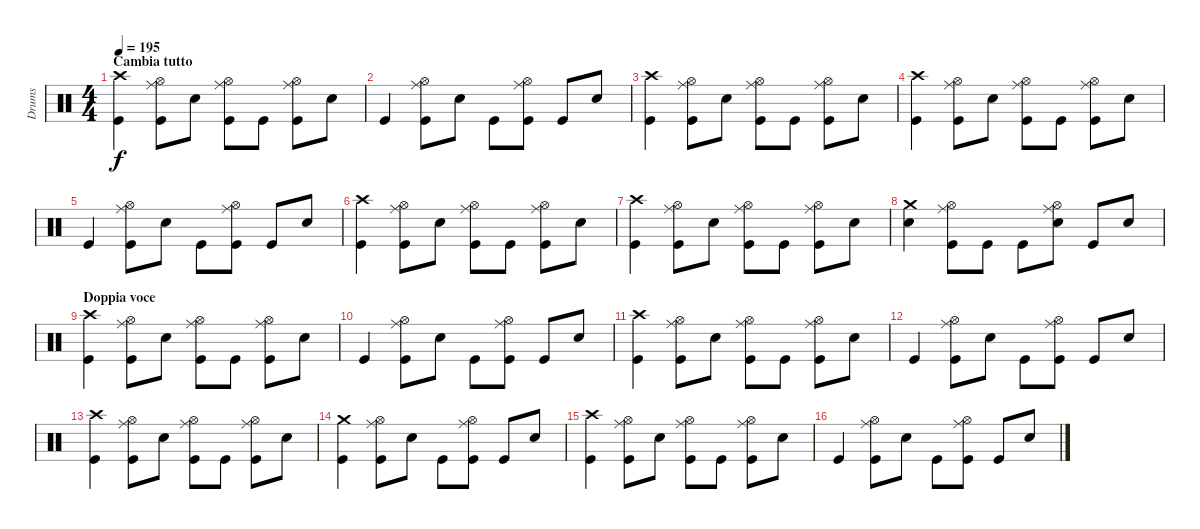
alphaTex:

\track ("Drums" "Drums") {instrument percussion}
\staff {score}
\articulation defaults
\ts (4 4)
\section ("" "Cambia tutto")
\tempo 195
\clef neutral
\ks c
("Crash high (hit)" "Kick (hit)").4{dy f} ("Hi-Hat (open)" "Ride (middle)" "Kick (hit)").8 "Electric Snare (hit)".8 ("Hi-Hat (open)" "Ride (middle)" "Kick (hit)").8 "Kick (hit)".8 ("Hi-Hat (open)" "Ride (middle)" "Kick (hit)").8 "Electric Snare (hit)".8 |
"Kick (hit)".4 ("Hi-Hat (open)" "Ride (middle)" "Kick (hit)").8 "Electric Snare (hit)".8 "Kick (hit)".8 ("Hi-Hat (open)" "Ride (middle)" "Kick (hit)").8 "Kick (hit)".8 "Electric Snare (hit)".8 |
("Crash high (hit)" "Kick (hit)").4 ("Ride (middle)" "Hi-Hat (open)" "Kick (hit)").8 "Electric Snare (hit)".8 ("Ride (middle)" "Hi-Hat (open)" "Kick (hit)").8 "Kick (hit)".8 ("Ride (middle)" "Hi-Hat (open)" "Kick (hit)").8 "Electric Snare (hit)".8 |
("Crash high (hit)" "Kick (hit)").4 ("Hi-Hat (open)" "Ride (middle)" "Kick (hit)").8 "Electric Snare (hit)".8 ("Hi-Hat (open)" "Ride (middle)" "Kick (hit)").8 "Kick (hit)".8 ("Hi-Hat (open)" "Ride (middle)" "Kick (hit)").8 "Electric Snare (hit)".8 |
"Kick (hit)".4 ("Hi-Hat (open)" "Ride (middle)" "Kick (hit)").8 "Electric Snare (hit)".8 "Kick (hit)".8 ("Hi-Hat (open)" "Ride (middle)" "Kick (hit)").8 "Kick (hit)".8 "Electric Snare (hit)".8 |
("Crash high (hit)" "Kick (hit)").4 ("Ride (middle)" "Hi-Hat (open)" "Kick (hit)").8 "Electric Snare (hit)".8 ("Ride (middle)" "Hi-Hat (open)" "Kick (hit)").8 "Kick (hit)".8 ("Ride (middle)" "Hi-Hat (open)" "Kick (hit)").8 "Electric Snare (hit)".8 |
("Crash high (hit)" "Kick (hit)").4 ("Hi-Hat (open)" "Ride (middle)" "Kick (hit)").8 "Electric Snare (hit)".8 ("Hi-Hat (open)" "Ride (middle)" "Kick (hit)").8 "Kick (hit)".8 ("Hi-Hat (open)" "Ride (middle)" "Kick (hit)").8 "Electric Snare (hit)".8 |
("Crash medium (hit)" "Electric Snare (hit)").4 ("Hi-Hat (open)" "Ride (middle)" "Kick (hit)").8 "Kick (hit)".8 "Kick (hit)".8 ("Hi-Hat (open)" "Ride (middle)" "Electric Snare (hit)").8 "Kick (hit)".8 "Electric Snare (hit)".8 |
\section ("" "Doppia voce")
("Crash high (hit)" "Kick (hit)").4 ("Hi-Hat (open)" "Ride (middle)" "Kick (hit)").8 "Electric Snare (hit)".8 ("Hi-Hat (open)" "Ride (middle)" "Kick (hit)").8 "Kick (hit)".8 ("Hi-Hat (open)" "Ride (middle)" "Kick (hit)").8 "Electric Snare (hit)".8 |
"Kick (hit)".4 ("Hi-Hat (open)" "Ride (middle)" "Kick (hit)").8 "Electric Snare (hit)".8 "Kick (hit)".8 ("Hi-Hat (open)" "Ride (middle)" "Kick (hit)").8 "Kick (hit)".8 "Electric Snare (hit)".8 |
("Crash high (hit)" "Kick (hit)").4 ("Hi-Hat (open)" "Ride (middle)" "Kick (hit)").8 "Electric Snare (hit)".8 ("Hi-Hat (open)" "Ride (middle)" "Kick (hit)").8 "Kick (hit)".8 ("Hi-Hat (open)" "Ride (middle)" "Kick (hit)").8 "Electric Snare (hit)".8 |
"Kick (hit)".4 ("Hi-Hat (open)" "Ride (middle)" "Kick (hit)").8 "Electric Snare (hit)".8 "Kick (hit)".8 ("Hi-Hat (open)" "Ride (middle)" "Kick (hit)").8 "Kick (hit)".8 "Electric Snare (hit)".8 |
("Crash high (hit)" "Kick (hit)").4 ("Hi-Hat (open)" "Ride (middle)" "Kick (hit)").8 "Electric Snare (hit)".8 ("Hi-Hat (open)" "Ride (middle)" "Kick (hit)").8 "Kick (hit)".8 ("Hi-Hat (open)" "Ride (middle)" "Kick (hit)").8 "Electric Snare (hit)".8 |
("Crash medium (hit)" "Kick (hit)").4 ("Hi-Hat (open)" "Ride (middle)" "Kick (hit)").8 "Electric Snare (hit)".8 "Kick (hit)".8 ("Hi-Hat (open)" "Ride (middle)" "Kick (hit)").8 "Kick (hit)".8 "Electric Snare (hit)".8 |
("Crash high (hit)" "Kick (hit)").4 ("Hi-Hat (open)" "Ride (middle)" "Kick (hit)").8 "Electric Snare (hit)".8 ("Hi-Hat (open)" "Ride (middle)" "Kick (hit)").8 "Kick (hit)".8 ("Hi-Hat (open)" "Ride (middle)" "Kick (hit)").8 "Electric Snare (hit)".8 |
"Kick (hit)".4 ("Hi-Hat (open)" "Ride (middle)" "Kick (hit)").8 "Electric Snare (hit)".8 "Kick (hit)".8 ("Hi-Hat (open)" "Ride (middle)" "Kick (hit)").8 "Kick (hit)".8 "Electric Snare (hit)".8
